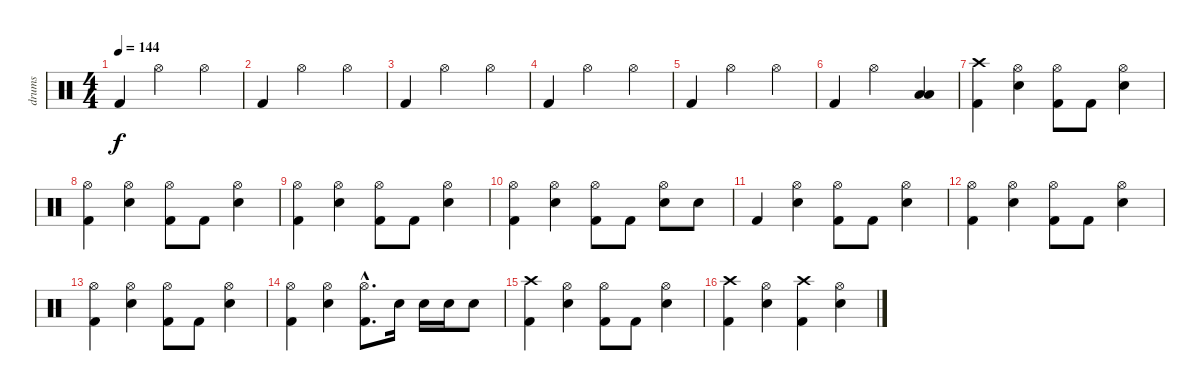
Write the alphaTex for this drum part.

\track ("drums" "drums") {instrument percussion}
\staff {score}
\articulation defaults
\ts (4 4)
\tempo 144
\clef neutral
\ks c "Kick (hit) 2".4{dy f} "Hi-Hat (open)".2 "Hi-Hat (open)".4
|
"Kick (hit) 2".4 "Hi-Hat (open)".2 "Hi-Hat (open)".4 |
"Kick (hit) 2".4 "Hi-Hat (open)".2 "Hi-Hat (open)".4 |
"Kick (hit) 2".4 "Hi-Hat (open)".2 "Hi-Hat (open)".4 |
"Kick (hit) 2".4 "Hi-Hat (open)".2 "Hi-Hat (open)".4 |
"Kick (hit) 2".4 "Hi-Hat (open)".2 ("Low Tom (hit)" "Low Floor Tom (hit)").4 |
("Crash high (hit)" "Kick (hit) 2").4 ("Hi-Hat (open)" "Electric Snare (hit)").4 ("Hi-Hat (open)" "Kick (hit) 2").8 "Kick (hit) 2".8 ("Hi-Hat (open)" "Electric Snare (hit)").4 |
("Hi-Hat (open)" "Kick (hit) 2").4 ("Hi-Hat (open)" "Electric Snare (hit)").4 ("Hi-Hat (open)" "Kick (hit) 2").8 "Kick (hit) 2".8 ("Hi-Hat (open)" "Electric Snare (hit)").4 |
("Hi-Hat (open)" "Kick (hit) 2").4 ("Hi-Hat (open)" "Electric Snare (hit)").4 ("Hi-Hat (open)" "Kick (hit) 2").8 "Kick (hit) 2".8 ("Hi-Hat (open)" "Electric Snare (hit)").4 |
("Hi-Hat (open)" "Kick (hit) 2").4 ("Hi-Hat (open)" "Electric Snare (hit)").4 ("Hi-Hat (open)" "Kick (hit) 2").8 "Kick (hit) 2".8 ("Hi-Hat (open)" "Electric Snare (hit)").8 "Electric Snare (hit)".8 |
"Kick (hit) 2".4 ("Hi-Hat (open)" "Electric Snare (hit)").4 ("Hi-Hat (open)" "Kick (hit) 2").8 "Kick (hit) 2".8 ("Hi-Hat (open)" "Electric Snare (hit)").4 |
("Hi-Hat (open)" "Kick (hit) 2").4 ("Hi-Hat (open)" "Electric Snare (hit)").4 ("Hi-Hat (open)" "Kick (hit) 2").8 "Kick (hit) 2".8 ("Hi-Hat (open)" "Electric Snare (hit)").4 |
("Hi-Hat (open)" "Kick (hit) 2").4 ("Hi-Hat (open)" "Electric Snare (hit)").4 ("Hi-Hat (open)" "Kick (hit) 2").8 "Kick (hit) 2".8 ("Hi-Hat (open)" "Electric Snare (hit)").4 |
("Hi-Hat (open)" "Kick (hit) 2").4 ("Hi-Hat (open)" "Electric Snare (hit)").4 ("Hi-Hat (open)"{hac} "Kick (hit) 2"{hac}).8{d} "Electric Snare (hit)".16 "Electric Snare (hit)".16 "Electric Snare (hit)".16 "Electric Snare (hit)".8 |
("Crash high (hit)" "Kick (hit) 2").4 ("Hi-Hat (open)" "Electric Snare (hit)").4 ("Hi-Hat (open)" "Kick (hit) 2").8 "Kick (hit) 2".8 ("Hi-Hat (open)" "Electric Snare (hit)").4 |
("Crash high (hit)" "Kick (hit) 2").4 ("Hi-Hat (open)" "Electric Snare (hit)").4 ("Crash high (hit)" "Kick (hit) 2").4 ("Hi-Hat (open)" "Electric Snare (hit)").4
